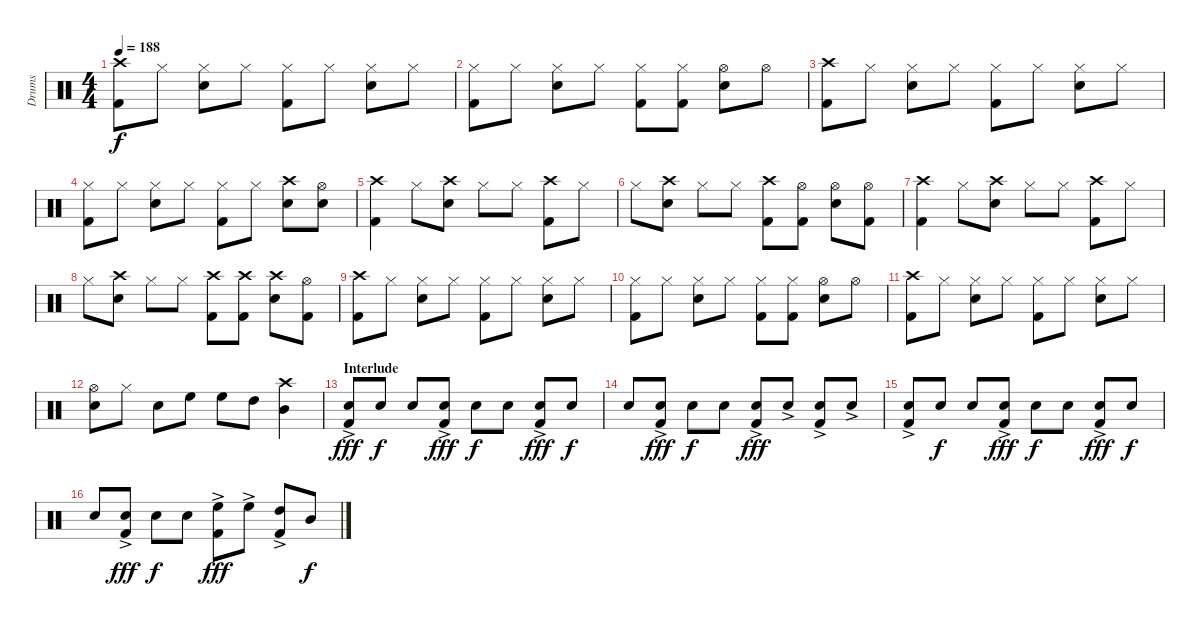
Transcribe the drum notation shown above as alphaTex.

\track ("Drums" "Drums") {instrument percussion}
\staff {score}
\articulation defaults
\ts (4 4)
\tempo 188
\clef neutral
\ks c
("Crash high (hit)" "Kick (hit) 2").8{dy f} "Hi-Hat (closed)".8 ("Hi-Hat (closed)" "Snare (hit) 2").8 "Hi-Hat (closed)".8 ("Hi-Hat (closed)" "Kick (hit) 2").8 "Hi-Hat (closed)".8 ("Hi-Hat (closed)" "Snare (hit) 2").8 "Hi-Hat (closed)".8 |
("Hi-Hat (closed)" "Kick (hit) 2").8 "Hi-Hat (closed)".8 ("Hi-Hat (closed)" "Snare (hit) 2").8 "Hi-Hat (closed)".8 ("Hi-Hat (closed)" "Kick (hit) 2").8 ("Hi-Hat (closed)" "Kick (hit) 2").8 ("Hi-Hat (open)" "Snare (hit) 2").8 "Hi-Hat (open)".8 |
("Crash high (hit)" "Kick (hit) 2").8 "Hi-Hat (closed)".8 ("Hi-Hat (closed)" "Snare (hit) 2").8 "Hi-Hat (closed)".8 ("Hi-Hat (closed)" "Kick (hit) 2").8 "Hi-Hat (closed)".8 ("Hi-Hat (closed)" "Snare (hit) 2").8 "Hi-Hat (closed)".8 |
("Hi-Hat (closed)" "Kick (hit) 2").8 "Hi-Hat (closed)".8 ("Hi-Hat (closed)" "Snare (hit) 2").8 "Hi-Hat (closed)".8 ("Hi-Hat (closed)" "Kick (hit) 2").8 "Hi-Hat (closed)".8 ("Crash high (hit)" "Snare (hit) 2").8 ("Hi-Hat (open)" "Snare (hit) 2").8 |
("Crash high (hit)" "Kick (hit) 2").4 "Hi-Hat (closed)".8 ("Crash high (hit)" "Snare (hit) 2").8 "Hi-Hat (closed)".8 "Hi-Hat (closed)".8 ("Crash high (hit)" "Kick (hit) 2").8 "Hi-Hat (closed)".8 |
"Hi-Hat (closed)".8 ("Crash high (hit)" "Snare (hit) 2").8 "Hi-Hat (closed)".8 "Hi-Hat (closed)".8 ("Crash high (hit)" "Kick (hit) 2").8 ("Hi-Hat (open)" "Kick (hit) 2").8 ("Hi-Hat (open)" "Snare (hit) 2").8 ("Hi-Hat (open)" "Kick (hit) 2").8 |
("Crash high (hit)" "Kick (hit) 2").4 "Hi-Hat (closed)".8 ("Crash high (hit)" "Snare (hit) 2").8 "Hi-Hat (closed)".8 "Hi-Hat (closed)".8 ("Crash high (hit)" "Kick (hit) 2").8 "Hi-Hat (closed)".8 |
"Hi-Hat (closed)".8 ("Crash high (hit)" "Snare (hit) 2").8 "Hi-Hat (closed)".8 "Hi-Hat (closed)".8 ("Crash high (hit)" "Kick (hit) 2").8 ("Crash high (hit)" "Kick (hit) 2").8 ("Crash high (hit)" "Snare (hit) 2").8 ("Hi-Hat (open)" "Kick (hit) 2").8 |
("Crash high (hit)" "Kick (hit) 2").8 "Hi-Hat (closed)".8 ("Hi-Hat (closed)" "Snare (hit) 2").8 "Hi-Hat (closed)".8 ("Hi-Hat (closed)" "Kick (hit) 2").8 "Hi-Hat (closed)".8 ("Hi-Hat (closed)" "Snare (hit) 2").8 "Hi-Hat (closed)".8 |
("Hi-Hat (closed)" "Kick (hit) 2").8 "Hi-Hat (closed)".8 ("Hi-Hat (closed)" "Snare (hit) 2").8 "Hi-Hat (closed)".8 ("Hi-Hat (closed)" "Kick (hit) 2").8 ("Hi-Hat (closed)" "Kick (hit) 2").8 ("Hi-Hat (open)" "Snare (hit) 2").8 "Hi-Hat (open)".8 |
("Crash high (hit)" "Kick (hit) 2").8 "Hi-Hat (closed)".8 ("Hi-Hat (closed)" "Snare (hit) 2").8 "Hi-Hat (closed)".8 ("Hi-Hat (closed)" "Kick (hit) 2").8 "Hi-Hat (closed)".8 ("Hi-Hat (closed)" "Snare (hit) 2").8 "Hi-Hat (closed)".8 |
("Hi-Hat (open)" "Snare (hit) 2").8 "Hi-Hat (closed)".8 "Snare (hit) 2".8 "High Floor Tom (hit)".8 "High Floor Tom (hit)".8 "High Tom (hit)".8 ("Crash high (hit)" "Mid Tom (hit)").4 |
\section ("" "Interlude")
("Kick (hit) 2" "Snare (hit) 2"{ac}).8{dy fff} "Snare (hit) 2".8{dy f} "Snare (hit) 2".8 ("Kick (hit) 2" "Snare (hit) 2"{ac}).8{dy fff} "Snare (hit) 2".8{dy f} "Snare (hit) 2".8 ("Kick (hit) 2" "Snare (hit) 2"{ac}).8{dy fff} "Snare (hit) 2".8{dy f} |
"Snare (hit) 2".8 ("Kick (hit) 2" "Snare (hit) 2"{ac}).8{dy fff} "Snare (hit) 2".8{dy f} "Snare (hit) 2".8 ("Kick (hit) 2" "Snare (hit) 2"{ac}).8{dy fff} "Snare (hit) 2"{ac}.8 ("Kick (hit) 2" "Snare (hit) 2"{ac}).8 "Snare (hit) 2"{ac}.8 |
("Kick (hit) 2" "Snare (hit) 2"{ac}).8 "Snare (hit) 2".8{dy f} "Snare (hit) 2".8 ("Kick (hit) 2" "Snare (hit) 2"{ac}).8{dy fff} "Snare (hit) 2".8{dy f} "Snare (hit) 2".8 ("Kick (hit) 2" "Snare (hit) 2"{ac}).8{dy fff} "Snare (hit) 2".8{dy f} |
"Snare (hit) 2".8 ("Kick (hit) 2" "Snare (hit) 2"{ac}).8{dy fff} "Snare (hit) 2".8{dy f} "Snare (hit) 2".8 ("Kick (hit) 2" "High Floor Tom (hit)"{ac}).8{dy fff} "High Floor Tom (hit)"{ac}.8 ("Kick (hit) 2" "High Tom (hit)"{ac}).8 "Mid Tom (hit)".8{dy f}
